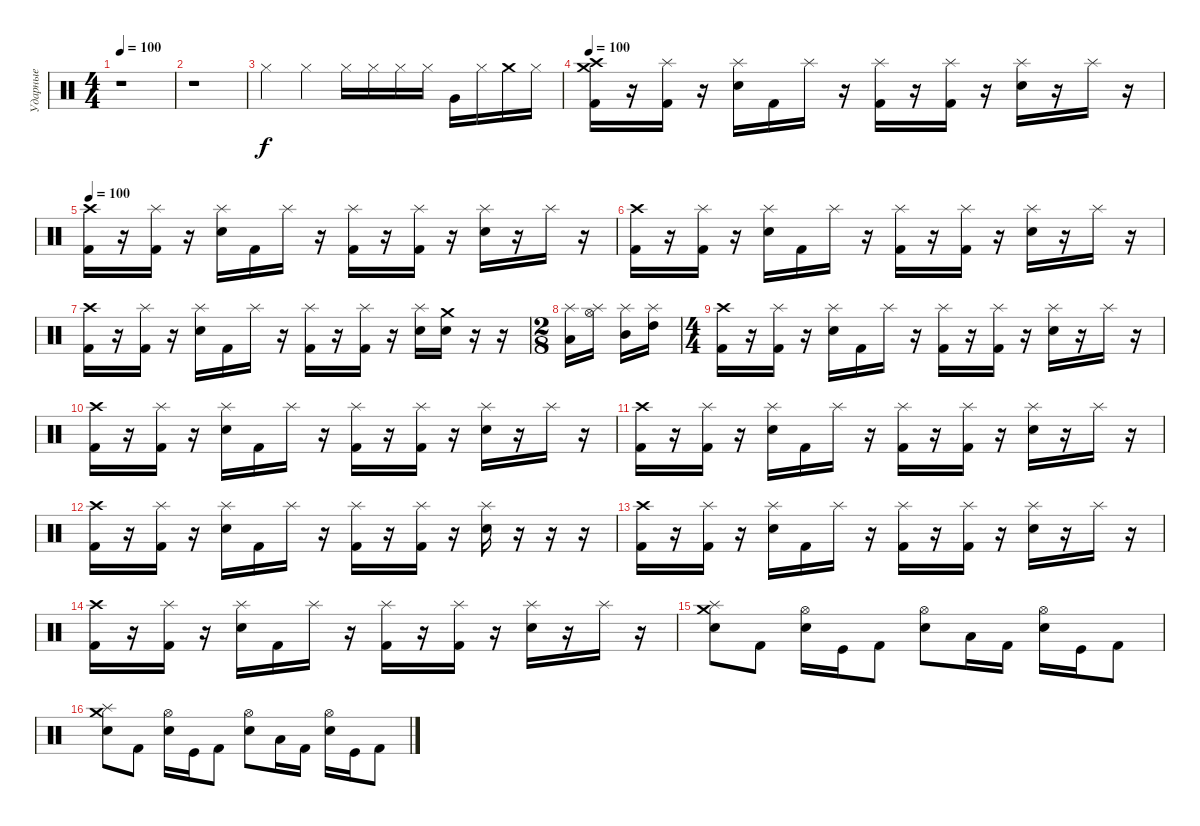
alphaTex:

\track ("Ударные" "Ударные") {instrument percussion}
\staff {score}
\articulation defaults
\ts (4 4)
\tempo 100
\tempo 120
\tempo 100
\clef neutral
\ks c
r.1{dy f} |
r.1 |
"Hi-Hat (closed)".4 "Hi-Hat (closed)".4 "Hi-Hat (closed)".16 "Hi-Hat (closed)".16 "Hi-Hat (closed)".16 "Hi-Hat (closed)".16 "Very Low Tom (hit)".16 "Hi-Hat (closed)".16 "Crash medium (hit)".16 "Hi-Hat (closed)".16 |
\tempo 100
("Crash high (hit)" "Kick (hit) 2" "Crash medium (hit)").16 r.16 ("Splash (hit)" "Kick (hit) 2").16 r.16 ("Splash (hit)" "Electric Snare (hit)").16 "Kick (hit) 2".16 "Splash (hit)".16 r.16 ("Splash (hit)" "Kick (hit) 2").16 r.16 ("Splash (hit)" "Kick (hit) 2").16 r.16 ("Splash (hit)" "Electric Snare (hit)").16 r.16 "Splash (hit)".16 r.16 |
\tempo 100
("Crash high (hit)" "Kick (hit) 2").16 r.16 ("Splash (hit)" "Kick (hit) 2").16 r.16 ("Splash (hit)" "Electric Snare (hit)").16 "Kick (hit) 2".16 "Splash (hit)".16 r.16 ("Splash (hit)" "Kick (hit) 2").16 r.16 ("Splash (hit)" "Kick (hit) 2").16 r.16 ("Splash (hit)" "Electric Snare (hit)").16 r.16 "Splash (hit)".16 r.16 |
("Crash high (hit)" "Kick (hit) 2").16 r.16 ("Splash (hit)" "Kick (hit) 2").16 r.16 ("Splash (hit)" "Electric Snare (hit)").16 "Kick (hit) 2".16 "Splash (hit)".16 r.16 ("Splash (hit)" "Kick (hit) 2").16 r.16 ("Splash (hit)" "Kick (hit) 2").16 r.16 ("Splash (hit)" "Electric Snare (hit)").16 r.16 "Splash (hit)".16 r.16 |
("Crash high (hit)" "Kick (hit) 2").16 r.16 ("Splash (hit)" "Kick (hit) 2").16 r.16 ("Splash (hit)" "Electric Snare (hit)").16 "Kick (hit) 2".16 "Splash (hit)".16 r.16 ("Splash (hit)" "Kick (hit) 2").16 r.16 ("Splash (hit)" "Kick (hit) 2").16 r.16 ("Splash (hit)" "Electric Snare (hit)").16 ("Snare (hit) 2" "Crash medium (hit)").16 r.16 r.16 |
\ts (2 8)
("Low Tom (hit)" "Splash (hit)").16 ("Hi-Hat (open)" "Splash (hit)").16 ("Mid Tom (hit)" "Splash (hit)").16 ("High Tom (hit)" "Splash (hit)").16 |
\ts (4 4)
("Crash high (hit)" "Kick (hit) 2").16 r.16 ("Splash (hit)" "Kick (hit) 2").16 r.16 ("Splash (hit)" "Electric Snare (hit)").16 "Kick (hit) 2".16 "Splash (hit)".16 r.16 ("Splash (hit)" "Kick (hit) 2").16 r.16 ("Splash (hit)" "Kick (hit) 2").16 r.16 ("Splash (hit)" "Electric Snare (hit)").16 r.16 "Splash (hit)".16 r.16 |
("Crash high (hit)" "Kick (hit) 2").16 r.16 ("Splash (hit)" "Kick (hit) 2").16 r.16 ("Splash (hit)" "Electric Snare (hit)").16 "Kick (hit) 2".16 "Splash (hit)".16 r.16 ("Splash (hit)" "Kick (hit) 2").16 r.16 ("Splash (hit)" "Kick (hit) 2").16 r.16 ("Splash (hit)" "Electric Snare (hit)").16 r.16 "Splash (hit)".16 r.16 |
("Crash high (hit)" "Kick (hit) 2").16 r.16 ("Splash (hit)" "Kick (hit) 2").16 r.16 ("Splash (hit)" "Electric Snare (hit)").16 "Kick (hit) 2".16 "Splash (hit)".16 r.16 ("Splash (hit)" "Kick (hit) 2").16 r.16 ("Splash (hit)" "Kick (hit) 2").16 r.16 ("Splash (hit)" "Electric Snare (hit)").16 r.16 "Splash (hit)".16 r.16 |
("Crash high (hit)" "Kick (hit) 2").16 r.16 ("Splash (hit)" "Kick (hit) 2").16 r.16 ("Splash (hit)" "Electric Snare (hit)").16 "Kick (hit) 2".16 "Splash (hit)".16 r.16 ("Splash (hit)" "Kick (hit) 2").16 r.16 ("Splash (hit)" "Kick (hit) 2").16 r.16 ("Splash (hit)" "Electric Snare (hit)").16 r.16 r.16 r.16 |
("Crash high (hit)" "Kick (hit) 2").16 r.16 ("Splash (hit)" "Kick (hit) 2").16 r.16 ("Splash (hit)" "Electric Snare (hit)").16 "Kick (hit) 2".16 "Splash (hit)".16 r.16 ("Splash (hit)" "Kick (hit) 2").16 r.16 ("Splash (hit)" "Kick (hit) 2").16 r.16 ("Splash (hit)" "Electric Snare (hit)").16 r.16 "Splash (hit)".16 r.16 |
("Crash high (hit)" "Kick (hit) 2").16 r.16 ("Splash (hit)" "Kick (hit) 2").16 r.16 ("Splash (hit)" "Electric Snare (hit)").16 "Kick (hit) 2".16 "Splash (hit)".16 r.16 ("Splash (hit)" "Kick (hit) 2").16 r.16 ("Splash (hit)" "Kick (hit) 2").16 r.16 ("Splash (hit)" "Electric Snare (hit)").16 r.16 "Splash (hit)".16 r.16 |
("Splash (hit)" "Snare (hit) 2" "Crash medium (hit)").8 "Kick (hit) 2".8 ("Hi-Hat (open)" "Electric Snare (hit)").16 "Kick (hit)".16 "Kick (hit) 2".8 ("Hi-Hat (open)" "Snare (hit) 2").8 "Low Tom (hit)".16 "Kick (hit) 2".16 ("Hi-Hat (open)" "Electric Snare (hit)").16 "Kick (hit)".16 "Kick (hit) 2".8 |
("Splash (hit)" "Snare (hit) 2" "Crash medium (hit)").8 "Kick (hit) 2".8 ("Hi-Hat (open)" "Electric Snare (hit)").16 "Kick (hit)".16 "Kick (hit) 2".8 ("Hi-Hat (open)" "Snare (hit) 2").8 "Low Tom (hit)".16 "Kick (hit) 2".16 ("Hi-Hat (open)" "Electric Snare (hit)").16 "Kick (hit)".16 "Kick (hit) 2".8
